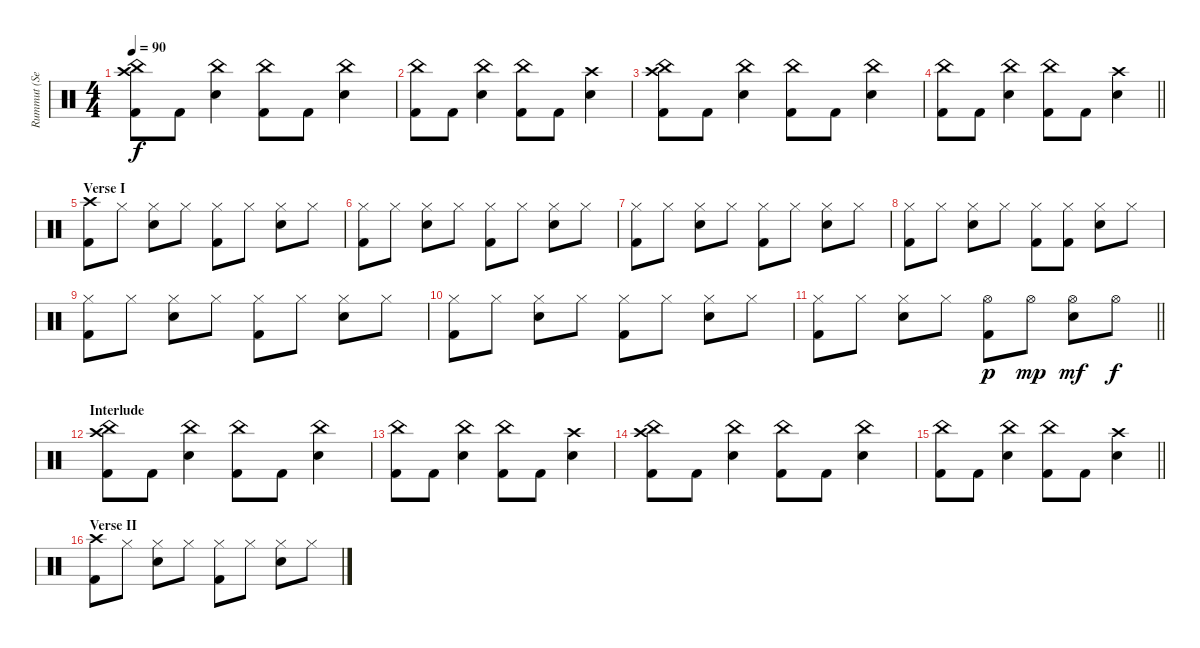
\track ("Rummut (Seppo Pohjolainen)" "Rummut (Se") {instrument percussion}
\staff {score}
\articulation defaults
\ts (4 4)
\tempo 90
\clef neutral
\ks c
("China (hit)" "Crash high (hit)" "Kick (hit) 2").8{dy f} "Kick (hit) 2".8 ("China (hit)" "Snare (hit) 2").4 ("China (hit)" "Kick (hit) 2").8 "Kick (hit) 2".8 ("China (hit)" "Snare (hit) 2").4 |
("China (hit)" "Kick (hit) 2").8 "Kick (hit) 2".8 ("China (hit)" "Snare (hit) 2").4 ("China (hit)" "Kick (hit) 2").8 "Kick (hit) 2".8 ("Crash high (hit)" "Snare (hit) 2").4 |
("China (hit)" "Crash high (hit)" "Kick (hit) 2").8 "Kick (hit) 2".8 ("China (hit)" "Snare (hit) 2").4 ("China (hit)" "Kick (hit) 2").8 "Kick (hit) 2".8 ("China (hit)" "Snare (hit) 2").4 |
\barLineRight lightlight
("China (hit)" "Kick (hit) 2").8 "Kick (hit) 2".8 ("China (hit)" "Snare (hit) 2").4 ("China (hit)" "Kick (hit) 2").8 "Kick (hit) 2".8 ("Crash high (hit)" "Snare (hit) 2").4 |
\section ("" "Verse I")
("Crash high (hit)" "Kick (hit) 2").8 "Hi-Hat (closed)".8 ("Hi-Hat (closed)" "Snare (hit) 2").8 "Hi-Hat (closed)".8 ("Hi-Hat (closed)" "Kick (hit) 2").8 "Hi-Hat (closed)".8 ("Hi-Hat (closed)" "Snare (hit) 2").8 "Hi-Hat (closed)".8 |
("Hi-Hat (closed)" "Kick (hit) 2").8 "Hi-Hat (closed)".8 ("Hi-Hat (closed)" "Snare (hit) 2").8 "Hi-Hat (closed)".8 ("Hi-Hat (closed)" "Kick (hit) 2").8 "Hi-Hat (closed)".8 ("Hi-Hat (closed)" "Snare (hit) 2").8 "Hi-Hat (closed)".8 |
("Hi-Hat (closed)" "Kick (hit) 2").8 "Hi-Hat (closed)".8 ("Hi-Hat (closed)" "Snare (hit) 2").8 "Hi-Hat (closed)".8 ("Hi-Hat (closed)" "Kick (hit) 2").8 "Hi-Hat (closed)".8 ("Hi-Hat (closed)" "Snare (hit) 2").8 "Hi-Hat (closed)".8 |
("Hi-Hat (closed)" "Kick (hit) 2").8 "Hi-Hat (closed)".8 ("Hi-Hat (closed)" "Snare (hit) 2").8 "Hi-Hat (closed)".8 ("Hi-Hat (closed)" "Kick (hit) 2").8 ("Hi-Hat (closed)" "Kick (hit) 2").8 ("Hi-Hat (closed)" "Snare (hit) 2").8 "Hi-Hat (closed)".8 |
("Hi-Hat (closed)" "Kick (hit) 2").8 "Hi-Hat (closed)".8 ("Hi-Hat (closed)" "Snare (hit) 2").8 "Hi-Hat (closed)".8 ("Hi-Hat (closed)" "Kick (hit) 2").8 "Hi-Hat (closed)".8 ("Hi-Hat (closed)" "Snare (hit) 2").8 "Hi-Hat (closed)".8 |
("Hi-Hat (closed)" "Kick (hit) 2").8 "Hi-Hat (closed)".8 ("Hi-Hat (closed)" "Snare (hit) 2").8 "Hi-Hat (closed)".8 ("Hi-Hat (closed)" "Kick (hit) 2").8 "Hi-Hat (closed)".8 ("Hi-Hat (closed)" "Snare (hit) 2").8 "Hi-Hat (closed)".8 |
\barLineRight lightlight
("Hi-Hat (closed)" "Kick (hit) 2").8 "Hi-Hat (closed)".8 ("Hi-Hat (closed)" "Snare (hit) 2").8 "Hi-Hat (closed)".8 ("Hi-Hat (open)" "Kick (hit) 2").8{dy p} "Hi-Hat (open)".8{dy mp} ("Hi-Hat (open)" "Snare (hit) 2").8{dy mf} "Hi-Hat (open)".8{dy f} |
\section ("" "Interlude")
("China (hit)" "Crash high (hit)" "Kick (hit) 2").8 "Kick (hit) 2".8 ("China (hit)" "Snare (hit) 2").4 ("China (hit)" "Kick (hit) 2").8 "Kick (hit) 2".8 ("China (hit)" "Snare (hit) 2").4 |
("China (hit)" "Kick (hit) 2").8 "Kick (hit) 2".8 ("China (hit)" "Snare (hit) 2").4 ("China (hit)" "Kick (hit) 2").8 "Kick (hit) 2".8 ("Crash high (hit)" "Snare (hit) 2").4 |
("China (hit)" "Crash high (hit)" "Kick (hit) 2").8 "Kick (hit) 2".8 ("China (hit)" "Snare (hit) 2").4 ("China (hit)" "Kick (hit) 2").8 "Kick (hit) 2".8 ("China (hit)" "Snare (hit) 2").4 |
\barLineRight lightlight
("China (hit)" "Kick (hit) 2").8 "Kick (hit) 2".8 ("China (hit)" "Snare (hit) 2").4 ("China (hit)" "Kick (hit) 2").8 "Kick (hit) 2".8 ("Crash high (hit)" "Snare (hit) 2").4 |
\section ("" "Verse II")
("Crash high (hit)" "Kick (hit) 2").8 "Hi-Hat (closed)".8 ("Hi-Hat (closed)" "Snare (hit) 2").8 "Hi-Hat (closed)".8 ("Hi-Hat (closed)" "Kick (hit) 2").8 "Hi-Hat (closed)".8 ("Hi-Hat (closed)" "Snare (hit) 2").8 "Hi-Hat (closed)".8
